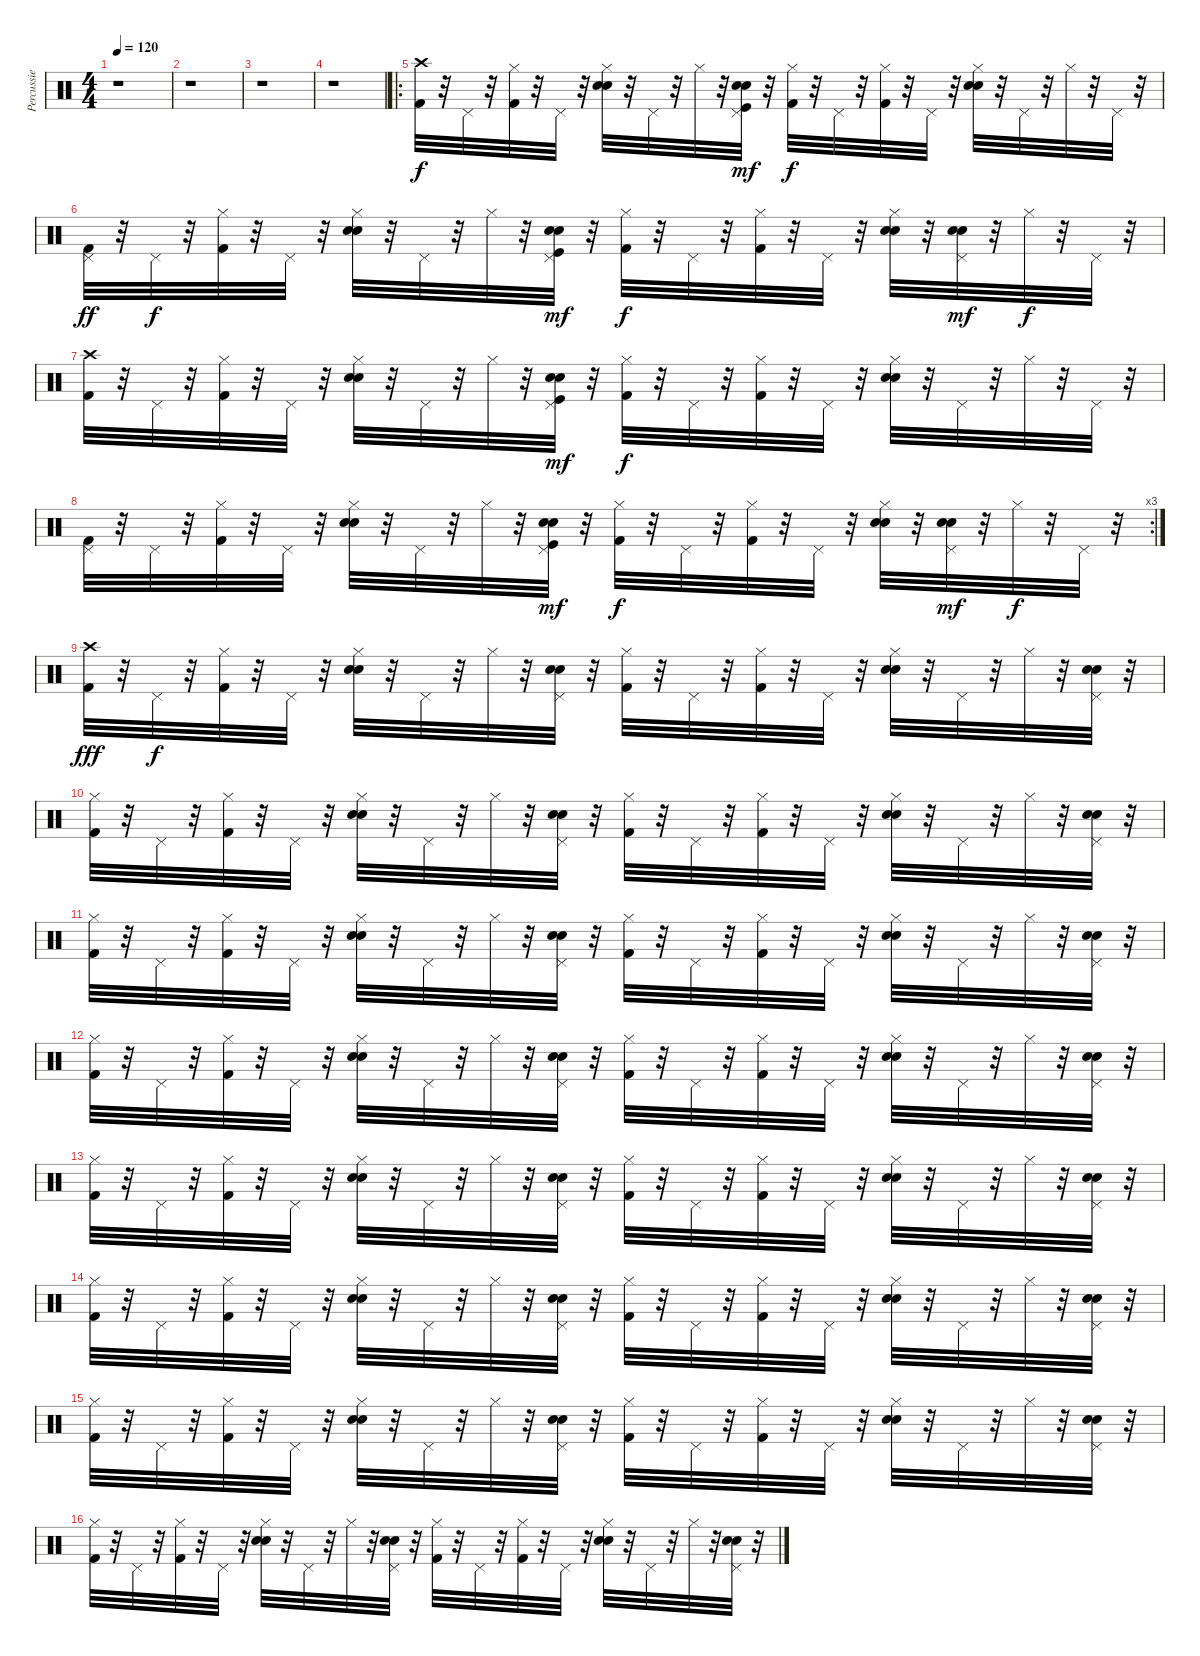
\track ("Percussie" "Percussie") {instrument percussion}
\staff {score}
\articulation defaults
\ts (4 4)
\tempo 120
\clef neutral
\ks c
r.1{dy f} |
r.1 |
r.1 |
r.1 |
\ro
("Crash high (hit)" "Kick (hit) 2").32 r.32 "Pedal Hi-Hat (hit)".32 r.32 ("Hi-Hat (closed)" "Kick (hit) 2").32 r.32 "Pedal Hi-Hat (hit)".32 r.32 ("Hi-Hat (closed)" "Hand Clap (hit)" "Electric Snare (hit)").32 r.32 "Pedal Hi-Hat (hit)".32 r.32 "Hi-Hat (closed)".32 r.32 ("Hand Clap (hit)" "Electric Snare (hit)" "Pedal Hi-Hat (hit)" "Kick (hit)").32{dy mf} r.32 ("Hi-Hat (closed)" "Kick (hit) 2").32{dy f} r.32 "Pedal Hi-Hat (hit)".32 r.32 ("Hi-Hat (closed)" "Kick (hit) 2").32 r.32 "Pedal Hi-Hat (hit)".32 r.32 ("Hi-Hat (closed)" "Hand Clap (hit)" "Electric Snare (hit)").32 r.32 "Pedal Hi-Hat (hit)".32 r.32 "Hi-Hat (closed)".32 r.32 "Pedal Hi-Hat (hit)".32 r.32 |
("Pedal Hi-Hat (hit)" "Kick (hit) 2").32{dy ff} r.32 "Pedal Hi-Hat (hit)".32{dy f} r.32 ("Hi-Hat (closed)" "Kick (hit) 2").32 r.32 "Pedal Hi-Hat (hit)".32 r.32 ("Hi-Hat (closed)" "Hand Clap (hit)" "Electric Snare (hit)").32 r.32 "Pedal Hi-Hat (hit)".32 r.32 "Hi-Hat (closed)".32 r.32 ("Hand Clap (hit)" "Electric Snare (hit)" "Pedal Hi-Hat (hit)" "Kick (hit)").32{dy mf} r.32 ("Hi-Hat (closed)" "Kick (hit) 2").32{dy f} r.32 "Pedal Hi-Hat (hit)".32 r.32 ("Hi-Hat (closed)" "Kick (hit) 2").32 r.32 "Pedal Hi-Hat (hit)".32 r.32 ("Hi-Hat (closed)" "Hand Clap (hit)" "Electric Snare (hit)").32 r.32 ("Hand Clap (hit)" "Electric Snare (hit)" "Pedal Hi-Hat (hit)").32{dy mf} r.32 "Hi-Hat (closed)".32{dy f} r.32 "Pedal Hi-Hat (hit)".32 r.32 |
("Crash high (hit)" "Kick (hit) 2").32 r.32 "Pedal Hi-Hat (hit)".32 r.32 ("Hi-Hat (closed)" "Kick (hit) 2").32 r.32 "Pedal Hi-Hat (hit)".32 r.32 ("Hi-Hat (closed)" "Hand Clap (hit)" "Electric Snare (hit)").32 r.32 "Pedal Hi-Hat (hit)".32 r.32 "Hi-Hat (closed)".32 r.32 ("Hand Clap (hit)" "Electric Snare (hit)" "Pedal Hi-Hat (hit)" "Kick (hit)").32{dy mf} r.32 ("Hi-Hat (closed)" "Kick (hit) 2").32{dy f} r.32 "Pedal Hi-Hat (hit)".32 r.32 ("Hi-Hat (closed)" "Kick (hit) 2").32 r.32 "Pedal Hi-Hat (hit)".32 r.32 ("Hi-Hat (closed)" "Hand Clap (hit)" "Electric Snare (hit)").32 r.32 "Pedal Hi-Hat (hit)".32 r.32 "Hi-Hat (closed)".32 r.32 "Pedal Hi-Hat (hit)".32 r.32 |
\rc 3
("Pedal Hi-Hat (hit)" "Kick (hit) 2").32 r.32 "Pedal Hi-Hat (hit)".32 r.32 ("Hi-Hat (closed)" "Kick (hit) 2").32 r.32 "Pedal Hi-Hat (hit)".32 r.32 ("Hi-Hat (closed)" "Hand Clap (hit)" "Electric Snare (hit)").32 r.32 "Pedal Hi-Hat (hit)".32 r.32 "Hi-Hat (closed)".32 r.32 ("Hand Clap (hit)" "Electric Snare (hit)" "Pedal Hi-Hat (hit)" "Kick (hit)").32{dy mf} r.32 ("Hi-Hat (closed)" "Kick (hit) 2").32{dy f} r.32 "Pedal Hi-Hat (hit)".32 r.32 ("Hi-Hat (closed)" "Kick (hit) 2").32 r.32 "Pedal Hi-Hat (hit)".32 r.32 ("Hi-Hat (closed)" "Hand Clap (hit)" "Electric Snare (hit)").32 r.32 ("Hand Clap (hit)" "Electric Snare (hit)" "Pedal Hi-Hat (hit)").32{dy mf} r.32 "Hi-Hat (closed)".32{dy f} r.32 "Pedal Hi-Hat (hit)".32 r.32 |
("Kick (hit) 2" "Crash high (hit)").32{dy fff} r.32 "Pedal Hi-Hat (hit)".32{dy f} r.32 ("Kick (hit) 2" "Hi-Hat (closed)").32 r.32 "Pedal Hi-Hat (hit)".32 r.32 ("Snare (hit) 2" "Electric Snare (hit)" "Hi-Hat (closed)").32 r.32 "Pedal Hi-Hat (hit)".32 r.32 "Hi-Hat (closed)".32 r.32 ("Snare (hit) 2" "Electric Snare (hit)" "Pedal Hi-Hat (hit)").32 r.32 ("Kick (hit) 2" "Hi-Hat (closed)").32 r.32 "Pedal Hi-Hat (hit)".32 r.32 ("Kick (hit) 2" "Hi-Hat (closed)").32 r.32 "Pedal Hi-Hat (hit)".32 r.32 ("Electric Snare (hit)" "Snare (hit) 2" "Hi-Hat (closed)").32 r.32 "Pedal Hi-Hat (hit)".32 r.32 "Hi-Hat (closed)".32 r.32 ("Pedal Hi-Hat (hit)" "Snare (hit) 2" "Electric Snare (hit)").32 r.32 |
("Hi-Hat (closed)" "Kick (hit) 2").32 r.32 "Pedal Hi-Hat (hit)".32 r.32 ("Kick (hit) 2" "Hi-Hat (closed)").32 r.32 "Pedal Hi-Hat (hit)".32 r.32 ("Snare (hit) 2" "Electric Snare (hit)" "Hi-Hat (closed)").32 r.32 "Pedal Hi-Hat (hit)".32 r.32 "Hi-Hat (closed)".32 r.32 ("Snare (hit) 2" "Electric Snare (hit)" "Pedal Hi-Hat (hit)").32 r.32 ("Kick (hit) 2" "Hi-Hat (closed)").32 r.32 "Pedal Hi-Hat (hit)".32 r.32 ("Kick (hit) 2" "Hi-Hat (closed)").32 r.32 "Pedal Hi-Hat (hit)".32 r.32 ("Electric Snare (hit)" "Snare (hit) 2" "Hi-Hat (closed)").32 r.32 "Pedal Hi-Hat (hit)".32 r.32 "Hi-Hat (closed)".32 r.32 ("Pedal Hi-Hat (hit)" "Snare (hit) 2" "Electric Snare (hit)").32 r.32 |
("Hi-Hat (closed)" "Kick (hit) 2").32 r.32 "Pedal Hi-Hat (hit)".32 r.32 ("Kick (hit) 2" "Hi-Hat (closed)").32 r.32 "Pedal Hi-Hat (hit)".32 r.32 ("Snare (hit) 2" "Electric Snare (hit)" "Hi-Hat (closed)").32 r.32 "Pedal Hi-Hat (hit)".32 r.32 "Hi-Hat (closed)".32 r.32 ("Snare (hit) 2" "Electric Snare (hit)" "Pedal Hi-Hat (hit)").32 r.32 ("Kick (hit) 2" "Hi-Hat (closed)").32 r.32 "Pedal Hi-Hat (hit)".32 r.32 ("Kick (hit) 2" "Hi-Hat (closed)").32 r.32 "Pedal Hi-Hat (hit)".32 r.32 ("Electric Snare (hit)" "Snare (hit) 2" "Hi-Hat (closed)").32 r.32 "Pedal Hi-Hat (hit)".32 r.32 "Hi-Hat (closed)".32 r.32 ("Pedal Hi-Hat (hit)" "Snare (hit) 2" "Electric Snare (hit)").32 r.32 |
("Hi-Hat (closed)" "Kick (hit) 2").32 r.32 "Pedal Hi-Hat (hit)".32 r.32 ("Kick (hit) 2" "Hi-Hat (closed)").32 r.32 "Pedal Hi-Hat (hit)".32 r.32 ("Snare (hit) 2" "Electric Snare (hit)" "Hi-Hat (closed)").32 r.32 "Pedal Hi-Hat (hit)".32 r.32 "Hi-Hat (closed)".32 r.32 ("Snare (hit) 2" "Electric Snare (hit)" "Pedal Hi-Hat (hit)").32 r.32 ("Kick (hit) 2" "Hi-Hat (closed)").32 r.32 "Pedal Hi-Hat (hit)".32 r.32 ("Kick (hit) 2" "Hi-Hat (closed)").32 r.32 "Pedal Hi-Hat (hit)".32 r.32 ("Electric Snare (hit)" "Snare (hit) 2" "Hi-Hat (closed)").32 r.32 "Pedal Hi-Hat (hit)".32 r.32 "Hi-Hat (closed)".32 r.32 ("Pedal Hi-Hat (hit)" "Snare (hit) 2" "Electric Snare (hit)").32 r.32 |
("Hi-Hat (closed)" "Kick (hit) 2").32 r.32 "Pedal Hi-Hat (hit)".32 r.32 ("Kick (hit) 2" "Hi-Hat (closed)").32 r.32 "Pedal Hi-Hat (hit)".32 r.32 ("Snare (hit) 2" "Electric Snare (hit)" "Hi-Hat (closed)").32 r.32 "Pedal Hi-Hat (hit)".32 r.32 "Hi-Hat (closed)".32 r.32 ("Snare (hit) 2" "Electric Snare (hit)" "Pedal Hi-Hat (hit)").32 r.32 ("Kick (hit) 2" "Hi-Hat (closed)").32 r.32 "Pedal Hi-Hat (hit)".32 r.32 ("Kick (hit) 2" "Hi-Hat (closed)").32 r.32 "Pedal Hi-Hat (hit)".32 r.32 ("Electric Snare (hit)" "Snare (hit) 2" "Hi-Hat (closed)").32 r.32 "Pedal Hi-Hat (hit)".32 r.32 "Hi-Hat (closed)".32 r.32 ("Pedal Hi-Hat (hit)" "Snare (hit) 2" "Electric Snare (hit)").32 r.32 |
("Hi-Hat (closed)" "Kick (hit) 2").32 r.32 "Pedal Hi-Hat (hit)".32 r.32 ("Kick (hit) 2" "Hi-Hat (closed)").32 r.32 "Pedal Hi-Hat (hit)".32 r.32 ("Snare (hit) 2" "Electric Snare (hit)" "Hi-Hat (closed)").32 r.32 "Pedal Hi-Hat (hit)".32 r.32 "Hi-Hat (closed)".32 r.32 ("Snare (hit) 2" "Electric Snare (hit)" "Pedal Hi-Hat (hit)").32 r.32 ("Kick (hit) 2" "Hi-Hat (closed)").32 r.32 "Pedal Hi-Hat (hit)".32 r.32 ("Kick (hit) 2" "Hi-Hat (closed)").32 r.32 "Pedal Hi-Hat (hit)".32 r.32 ("Electric Snare (hit)" "Snare (hit) 2" "Hi-Hat (closed)").32 r.32 "Pedal Hi-Hat (hit)".32 r.32 "Hi-Hat (closed)".32 r.32 ("Pedal Hi-Hat (hit)" "Snare (hit) 2" "Electric Snare (hit)").32 r.32 |
("Hi-Hat (closed)" "Kick (hit) 2").32 r.32 "Pedal Hi-Hat (hit)".32 r.32 ("Kick (hit) 2" "Hi-Hat (closed)").32 r.32 "Pedal Hi-Hat (hit)".32 r.32 ("Snare (hit) 2" "Electric Snare (hit)" "Hi-Hat (closed)").32 r.32 "Pedal Hi-Hat (hit)".32 r.32 "Hi-Hat (closed)".32 r.32 ("Snare (hit) 2" "Electric Snare (hit)" "Pedal Hi-Hat (hit)").32 r.32 ("Kick (hit) 2" "Hi-Hat (closed)").32 r.32 "Pedal Hi-Hat (hit)".32 r.32 ("Kick (hit) 2" "Hi-Hat (closed)").32 r.32 "Pedal Hi-Hat (hit)".32 r.32 ("Electric Snare (hit)" "Snare (hit) 2" "Hi-Hat (closed)").32 r.32 "Pedal Hi-Hat (hit)".32 r.32 "Hi-Hat (closed)".32 r.32 ("Pedal Hi-Hat (hit)" "Snare (hit) 2" "Electric Snare (hit)").32 r.32 |
("Hi-Hat (closed)" "Kick (hit) 2").32 r.32 "Pedal Hi-Hat (hit)".32 r.32 ("Kick (hit) 2" "Hi-Hat (closed)").32 r.32 "Pedal Hi-Hat (hit)".32 r.32 ("Snare (hit) 2" "Electric Snare (hit)" "Hi-Hat (closed)").32 r.32 "Pedal Hi-Hat (hit)".32 r.32 "Hi-Hat (closed)".32 r.32 ("Snare (hit) 2" "Electric Snare (hit)" "Pedal Hi-Hat (hit)").32 r.32 ("Kick (hit) 2" "Hi-Hat (closed)").32 r.32 "Pedal Hi-Hat (hit)".32 r.32 ("Kick (hit) 2" "Hi-Hat (closed)").32 r.32 "Pedal Hi-Hat (hit)".32 r.32 ("Electric Snare (hit)" "Snare (hit) 2" "Hi-Hat (closed)").32 r.32 "Pedal Hi-Hat (hit)".32 r.32 "Hi-Hat (closed)".32 r.32 ("Pedal Hi-Hat (hit)" "Snare (hit) 2" "Electric Snare (hit)").32 r.32
